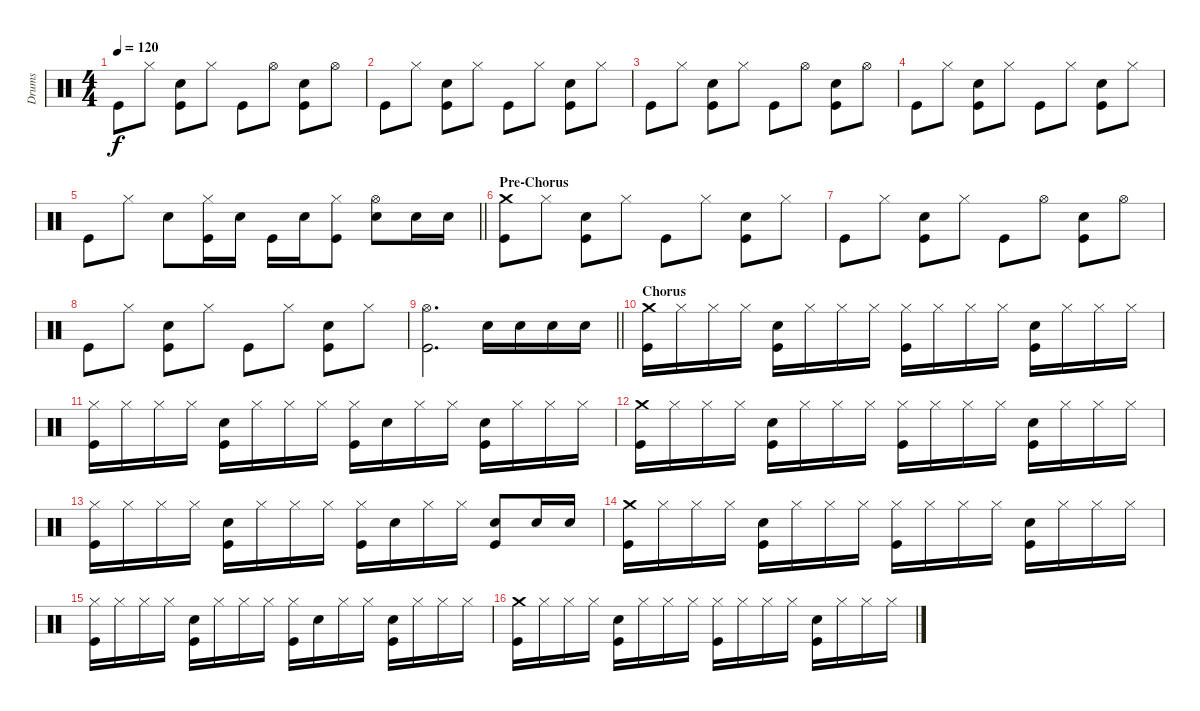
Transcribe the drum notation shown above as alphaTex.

\track ("Drums" "Drums") {instrument percussion}
\staff {score}
\articulation defaults
\ts (4 4)
\tempo 120
\clef neutral
\ks c "Kick (hit)".8{dy f} "Hi-Hat (closed)".8
("Kick (hit)" "Snare (hit) 2").8 "Hi-Hat (closed)".8 "Kick (hit)".8 "Hi-Hat (open)".8 ("Kick (hit)" "Snare (hit) 2").8 "Hi-Hat (open)".8 |
"Kick (hit)".8 "Hi-Hat (closed)".8 ("Kick (hit)" "Snare (hit) 2").8 "Hi-Hat (closed)".8 "Kick (hit)".8 "Hi-Hat (closed)".8 ("Kick (hit)" "Snare (hit) 2").8 "Hi-Hat (closed)".8 |
"Kick (hit)".8 "Hi-Hat (closed)".8 ("Kick (hit)" "Snare (hit) 2").8 "Hi-Hat (closed)".8 "Kick (hit)".8 "Hi-Hat (open)".8 ("Kick (hit)" "Snare (hit) 2").8 "Hi-Hat (open)".8 |
"Kick (hit)".8 "Hi-Hat (closed)".8 ("Kick (hit)" "Snare (hit) 2").8 "Hi-Hat (closed)".8 "Kick (hit)".8 "Hi-Hat (closed)".8 ("Kick (hit)" "Snare (hit) 2").8 "Hi-Hat (closed)".8 |
\barLineRight lightlight "Kick (hit)".8 "Hi-Hat (closed)".8 "Snare (hit) 2".8
("Hi-Hat (closed)" "Kick (hit)").16 "Snare (hit) 2".16 "Kick (hit)".16 "Snare (hit) 2".16 ("Hi-Hat (closed)" "Kick (hit)").8 ("Hi-Hat (open)" "Snare (hit) 2").8 "Snare (hit) 2".16 "Snare (hit) 2".16 |
\section ("" "Pre-Chorus")
("Crash medium (hit)" "Kick (hit)").8 "Hi-Hat (closed)".8 ("Kick (hit)" "Snare (hit) 2").8 "Hi-Hat (closed)".8 "Kick (hit)".8 "Hi-Hat (closed)".8 ("Kick (hit)" "Snare (hit) 2").8 "Hi-Hat (closed)".8 |
"Kick (hit)".8 "Hi-Hat (closed)".8 ("Kick (hit)" "Snare (hit) 2").8 "Hi-Hat (closed)".8 "Kick (hit)".8 "Hi-Hat (open)".8 ("Kick (hit)" "Snare (hit) 2").8 "Hi-Hat (open)".8 |
"Kick (hit)".8 "Hi-Hat (closed)".8 ("Kick (hit)" "Snare (hit) 2").8 "Hi-Hat (closed)".8 "Kick (hit)".8 "Hi-Hat (closed)".8 ("Kick (hit)" "Snare (hit) 2").8 "Hi-Hat (closed)".8 |
\barLineRight lightlight
("Hi-Hat (open)" "Kick (hit)").2{d} "Snare (hit) 2".16 "Snare (hit) 2".16 "Snare (hit) 2".16 "Snare (hit) 2".16 |
\section ("" "Chorus")
("Crash medium (hit)" "Kick (hit)").16 "Hi-Hat (closed)".16 "Hi-Hat (closed)".16 "Hi-Hat (closed)".16 ("Kick (hit)" "Snare (hit) 2").16 "Hi-Hat (closed)".16 "Hi-Hat (closed)".16 "Hi-Hat (closed)".16 ("Hi-Hat (closed)" "Kick (hit)").16 "Hi-Hat (closed)".16 "Hi-Hat (closed)".16 "Hi-Hat (closed)".16 ("Kick (hit)" "Snare (hit) 2").16 "Hi-Hat (closed)".16 "Hi-Hat (closed)".16 "Hi-Hat (closed)".16 |
("Hi-Hat (closed)" "Kick (hit)").16 "Hi-Hat (closed)".16 "Hi-Hat (closed)".16 "Hi-Hat (closed)".16 ("Kick (hit)" "Snare (hit) 2").16 "Hi-Hat (closed)".16 "Hi-Hat (closed)".16 "Hi-Hat (closed)".16 ("Hi-Hat (closed)" "Kick (hit)").16 "Snare (hit) 2".16 "Hi-Hat (closed)".16 "Hi-Hat (closed)".16 ("Kick (hit)" "Snare (hit) 2").16 "Hi-Hat (closed)".16 "Hi-Hat (closed)".16 "Hi-Hat (closed)".16 |
("Crash medium (hit)" "Kick (hit)").16 "Hi-Hat (closed)".16 "Hi-Hat (closed)".16 "Hi-Hat (closed)".16 ("Kick (hit)" "Snare (hit) 2").16 "Hi-Hat (closed)".16 "Hi-Hat (closed)".16 "Hi-Hat (closed)".16 ("Hi-Hat (closed)" "Kick (hit)").16 "Hi-Hat (closed)".16 "Hi-Hat (closed)".16 "Hi-Hat (closed)".16 ("Kick (hit)" "Snare (hit) 2").16 "Hi-Hat (closed)".16 "Hi-Hat (closed)".16 "Hi-Hat (closed)".16 |
("Hi-Hat (closed)" "Kick (hit)").16 "Hi-Hat (closed)".16 "Hi-Hat (closed)".16 "Hi-Hat (closed)".16 ("Kick (hit)" "Snare (hit) 2").16 "Hi-Hat (closed)".16 "Hi-Hat (closed)".16 "Hi-Hat (closed)".16 ("Hi-Hat (closed)" "Kick (hit)").16 "Snare (hit) 2".16 "Hi-Hat (closed)".16 "Hi-Hat (closed)".16 ("Kick (hit)" "Snare (hit) 2").8 "Snare (hit) 2".16 "Snare (hit) 2".16 |
("Crash medium (hit)" "Kick (hit)").16 "Hi-Hat (closed)".16 "Hi-Hat (closed)".16 "Hi-Hat (closed)".16 ("Kick (hit)" "Snare (hit) 2").16 "Hi-Hat (closed)".16 "Hi-Hat (closed)".16 "Hi-Hat (closed)".16 ("Hi-Hat (closed)" "Kick (hit)").16 "Hi-Hat (closed)".16 "Hi-Hat (closed)".16 "Hi-Hat (closed)".16 ("Kick (hit)" "Snare (hit) 2").16 "Hi-Hat (closed)".16 "Hi-Hat (closed)".16 "Hi-Hat (closed)".16 |
("Hi-Hat (closed)" "Kick (hit)").16 "Hi-Hat (closed)".16 "Hi-Hat (closed)".16 "Hi-Hat (closed)".16 ("Kick (hit)" "Snare (hit) 2").16 "Hi-Hat (closed)".16 "Hi-Hat (closed)".16 "Hi-Hat (closed)".16 ("Hi-Hat (closed)" "Kick (hit)").16 "Snare (hit) 2".16 "Hi-Hat (closed)".16 "Hi-Hat (closed)".16 ("Kick (hit)" "Snare (hit) 2").16 "Hi-Hat (closed)".16 "Hi-Hat (closed)".16 "Hi-Hat (closed)".16 |
("Crash medium (hit)" "Kick (hit)").16 "Hi-Hat (closed)".16 "Hi-Hat (closed)".16 "Hi-Hat (closed)".16 ("Kick (hit)" "Snare (hit) 2").16 "Hi-Hat (closed)".16 "Hi-Hat (closed)".16 "Hi-Hat (closed)".16 ("Hi-Hat (closed)" "Kick (hit)").16 "Hi-Hat (closed)".16 "Hi-Hat (closed)".16 "Hi-Hat (closed)".16 ("Kick (hit)" "Snare (hit) 2").16 "Hi-Hat (closed)".16 "Hi-Hat (closed)".16 "Hi-Hat (closed)".16
